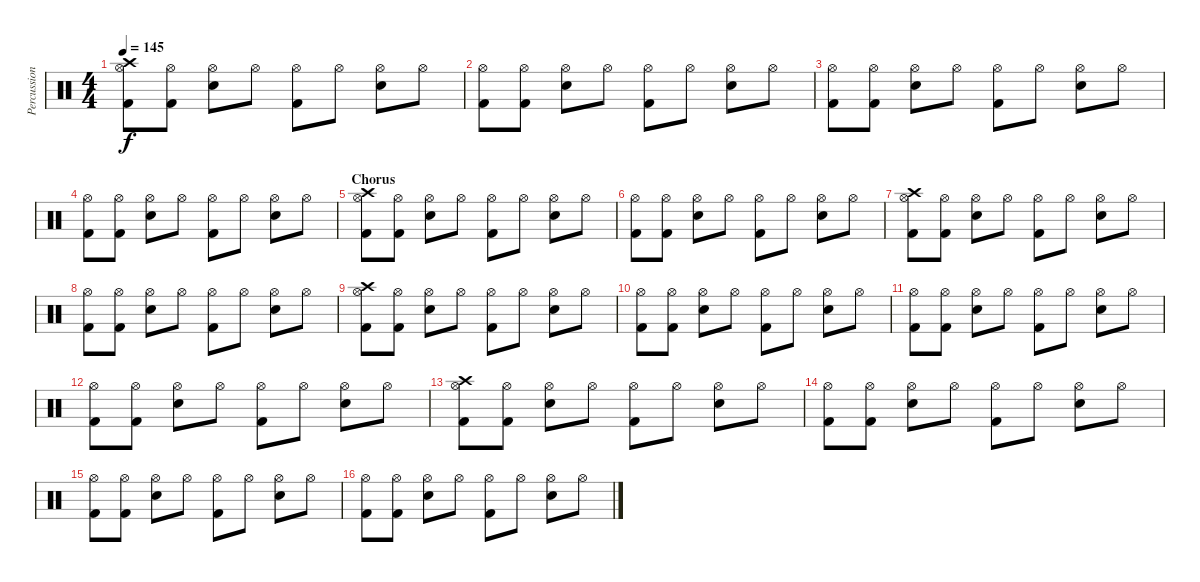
\track ("Percussion" "Percussion") {instrument percussion}
\staff {score}
\articulation defaults
\ts (4 4)
\tempo 145
\clef neutral
\ks c
("Hi-Hat (open)" "Kick (hit) 2" "Crash high (hit)").8{dy f} ("Hi-Hat (open)" "Kick (hit) 2").8 ("Hi-Hat (open)" "Snare (hit) 2").8 "Hi-Hat (open)".8 ("Hi-Hat (open)" "Kick (hit) 2").8 "Hi-Hat (open)".8 ("Hi-Hat (open)" "Snare (hit) 2").8 "Hi-Hat (open)".8 |
("Hi-Hat (open)" "Kick (hit) 2").8 ("Hi-Hat (open)" "Kick (hit) 2").8 ("Hi-Hat (open)" "Snare (hit) 2").8 "Hi-Hat (open)".8 ("Hi-Hat (open)" "Kick (hit) 2").8 "Hi-Hat (open)".8 ("Hi-Hat (open)" "Snare (hit) 2").8 "Hi-Hat (open)".8 |
("Hi-Hat (open)" "Kick (hit) 2").8 ("Hi-Hat (open)" "Kick (hit) 2").8 ("Hi-Hat (open)" "Snare (hit) 2").8 "Hi-Hat (open)".8 ("Hi-Hat (open)" "Kick (hit) 2").8 "Hi-Hat (open)".8 ("Hi-Hat (open)" "Snare (hit) 2").8 "Hi-Hat (open)".8 |
("Hi-Hat (open)" "Kick (hit) 2").8 ("Hi-Hat (open)" "Kick (hit) 2").8 ("Hi-Hat (open)" "Snare (hit) 2").8 "Hi-Hat (open)".8 ("Hi-Hat (open)" "Kick (hit) 2").8 "Hi-Hat (open)".8 ("Hi-Hat (open)" "Snare (hit) 2").8 "Hi-Hat (open)".8 |
\section ("" "Chorus")
("Hi-Hat (open)" "Kick (hit) 2" "Crash high (hit)").8 ("Hi-Hat (open)" "Kick (hit) 2").8 ("Hi-Hat (open)" "Snare (hit) 2").8 "Hi-Hat (open)".8 ("Hi-Hat (open)" "Kick (hit) 2").8 "Hi-Hat (open)".8 ("Hi-Hat (open)" "Snare (hit) 2").8 "Hi-Hat (open)".8 |
("Hi-Hat (open)" "Kick (hit) 2").8 ("Hi-Hat (open)" "Kick (hit) 2").8 ("Hi-Hat (open)" "Snare (hit) 2").8 "Hi-Hat (open)".8 ("Hi-Hat (open)" "Kick (hit) 2").8 "Hi-Hat (open)".8 ("Hi-Hat (open)" "Snare (hit) 2").8 "Hi-Hat (open)".8 |
("Hi-Hat (open)" "Kick (hit) 2" "Crash high (hit)").8 ("Hi-Hat (open)" "Kick (hit) 2").8 ("Hi-Hat (open)" "Snare (hit) 2").8 "Hi-Hat (open)".8 ("Hi-Hat (open)" "Kick (hit) 2").8 "Hi-Hat (open)".8 ("Hi-Hat (open)" "Snare (hit) 2").8 "Hi-Hat (open)".8 |
("Hi-Hat (open)" "Kick (hit) 2").8 ("Hi-Hat (open)" "Kick (hit) 2").8 ("Hi-Hat (open)" "Snare (hit) 2").8 "Hi-Hat (open)".8 ("Hi-Hat (open)" "Kick (hit) 2").8 "Hi-Hat (open)".8 ("Hi-Hat (open)" "Snare (hit) 2").8 "Hi-Hat (open)".8 |
("Hi-Hat (open)" "Kick (hit) 2" "Crash high (hit)").8 ("Hi-Hat (open)" "Kick (hit) 2").8 ("Hi-Hat (open)" "Snare (hit) 2").8 "Hi-Hat (open)".8 ("Hi-Hat (open)" "Kick (hit) 2").8 "Hi-Hat (open)".8 ("Hi-Hat (open)" "Snare (hit) 2").8 "Hi-Hat (open)".8 |
("Hi-Hat (open)" "Kick (hit) 2").8 ("Hi-Hat (open)" "Kick (hit) 2").8 ("Hi-Hat (open)" "Snare (hit) 2").8 "Hi-Hat (open)".8 ("Hi-Hat (open)" "Kick (hit) 2").8 "Hi-Hat (open)".8 ("Hi-Hat (open)" "Snare (hit) 2").8 "Hi-Hat (open)".8 |
("Hi-Hat (open)" "Kick (hit) 2").8 ("Hi-Hat (open)" "Kick (hit) 2").8 ("Hi-Hat (open)" "Snare (hit) 2").8 "Hi-Hat (open)".8 ("Hi-Hat (open)" "Kick (hit) 2").8 "Hi-Hat (open)".8 ("Hi-Hat (open)" "Snare (hit) 2").8 "Hi-Hat (open)".8 |
("Hi-Hat (open)" "Kick (hit) 2").8 ("Hi-Hat (open)" "Kick (hit) 2").8 ("Hi-Hat (open)" "Snare (hit) 2").8 "Hi-Hat (open)".8 ("Hi-Hat (open)" "Kick (hit) 2").8 "Hi-Hat (open)".8 ("Hi-Hat (open)" "Snare (hit) 2").8 "Hi-Hat (open)".8 |
("Hi-Hat (open)" "Kick (hit) 2" "Crash high (hit)").8 ("Hi-Hat (open)" "Kick (hit) 2").8 ("Hi-Hat (open)" "Snare (hit) 2").8 "Hi-Hat (open)".8 ("Hi-Hat (open)" "Kick (hit) 2").8 "Hi-Hat (open)".8 ("Hi-Hat (open)" "Snare (hit) 2").8 "Hi-Hat (open)".8 |
("Hi-Hat (open)" "Kick (hit) 2").8 ("Hi-Hat (open)" "Kick (hit) 2").8 ("Hi-Hat (open)" "Snare (hit) 2").8 "Hi-Hat (open)".8 ("Hi-Hat (open)" "Kick (hit) 2").8 "Hi-Hat (open)".8 ("Hi-Hat (open)" "Snare (hit) 2").8 "Hi-Hat (open)".8 |
("Hi-Hat (open)" "Kick (hit) 2").8 ("Hi-Hat (open)" "Kick (hit) 2").8 ("Hi-Hat (open)" "Snare (hit) 2").8 "Hi-Hat (open)".8 ("Hi-Hat (open)" "Kick (hit) 2").8 "Hi-Hat (open)".8 ("Hi-Hat (open)" "Snare (hit) 2").8 "Hi-Hat (open)".8 |
("Hi-Hat (open)" "Kick (hit) 2").8 ("Hi-Hat (open)" "Kick (hit) 2").8 ("Hi-Hat (open)" "Snare (hit) 2").8 "Hi-Hat (open)".8 ("Hi-Hat (open)" "Kick (hit) 2").8 "Hi-Hat (open)".8 ("Hi-Hat (open)" "Snare (hit) 2").8 "Hi-Hat (open)".8
